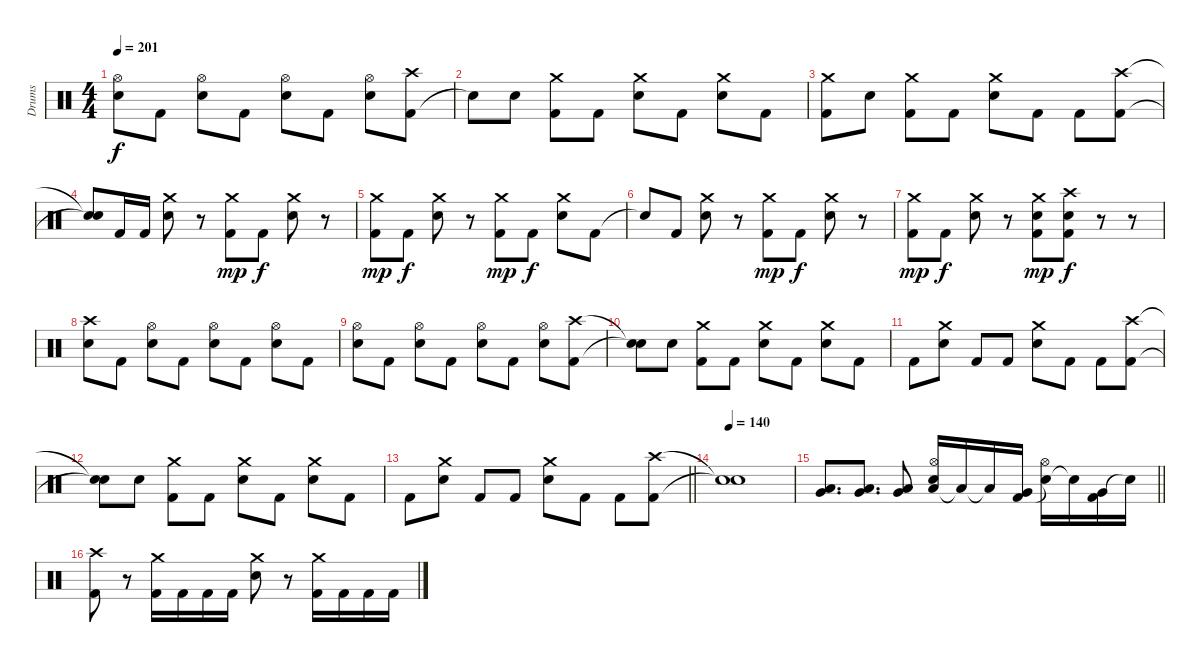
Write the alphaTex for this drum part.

\track ("Drums" "Drums") {instrument percussion}
\staff {score}
\articulation defaults
\ts (4 4)
\tempo 201
\clef neutral
\ks c
("Snare (hit) 2" "Hi-Hat (open)").8{dy f} "Kick (hit) 2".8 ("Snare (hit) 2" "Hi-Hat (open)").8 "Kick (hit) 2".8 ("Snare (hit) 2" "Hi-Hat (open)").8 "Kick (hit) 2".8 ("Snare (hit) 2" "Hi-Hat (open)").8 ("Kick (hit) 2" "Crash high (hit)").8 |
"Snare (hit)"{t}.8 "Snare (hit) 2".8 ("Kick (hit) 2" "Crash medium (hit)").8 "Kick (hit) 2".8 ("Snare (hit) 2" "Crash medium (hit)").8 "Kick (hit) 2".8 ("Snare (hit) 2" "Crash medium (hit)").8 "Kick (hit) 2".8 |
("Kick (hit) 2" "Crash medium (hit)").8 "Snare (hit) 2".8 ("Kick (hit) 2" "Crash medium (hit)").8 "Kick (hit) 2".8 ("Snare (hit) 2" "Crash medium (hit)").8 "Kick (hit) 2".8 "Kick (hit) 2".8 ("Kick (hit) 2" "Crash high (hit)").8 |
("Snare (hit)"{t} "Snare (hit)"{t}).8 "Kick (hit) 2".16 "Kick (hit) 2".16 ("Snare (hit) 2" "Crash medium (hit)").8 r.8 ("Kick (hit) 2" "Crash medium (hit)").8{dy mp} "Kick (hit) 2".8{dy f} ("Snare (hit) 2" "Crash medium (hit)").8 r.8 |
("Kick (hit) 2" "Crash medium (hit)").8{dy mp} "Kick (hit) 2".8{dy f} ("Snare (hit) 2" "Crash medium (hit)").8 r.8 ("Kick (hit) 2" "Crash medium (hit)").8{dy mp} "Kick (hit) 2".8{dy f} ("Snare (hit) 2" "Crash medium (hit)").8 "Kick (hit) 2".8 |
"Snare (hit)"{t}.8 "Kick (hit) 2".8 ("Snare (hit) 2" "Crash medium (hit)").8 r.8 ("Kick (hit) 2" "Crash medium (hit)").8{dy mp} "Kick (hit) 2".8{dy f} ("Snare (hit) 2" "Crash medium (hit)").8 r.8 |
("Kick (hit) 2" "Crash medium (hit)").8{dy mp} "Kick (hit) 2".8{dy f} ("Snare (hit) 2" "Crash medium (hit)").8 r.8 ("Kick (hit) 2" "Snare (hit) 2" "Crash medium (hit)").8{dy mp} ("Kick (hit) 2" "Snare (hit) 2" "Crash high (hit)").8{dy f} r.8 r.8 |
("Snare (hit) 2" "Crash high (hit)").8 "Kick (hit) 2".8 ("Snare (hit) 2" "Hi-Hat (open)").8 "Kick (hit) 2".8 ("Snare (hit) 2" "Hi-Hat (open)").8 "Kick (hit) 2".8 ("Snare (hit) 2" "Hi-Hat (open)").8 "Kick (hit) 2".8 |
("Snare (hit) 2" "Hi-Hat (open)").8 "Kick (hit) 2".8 ("Snare (hit) 2" "Hi-Hat (open)").8 "Kick (hit) 2".8 ("Snare (hit) 2" "Hi-Hat (open)").8 "Kick (hit) 2".8 ("Snare (hit) 2" "Hi-Hat (open)").8 ("Kick (hit) 2" "Crash high (hit)").8 |
("Snare (hit)"{t} "Snare (hit)"{t}).8 "Snare (hit) 2".8 ("Kick (hit) 2" "Crash medium (hit)").8 "Kick (hit) 2".8 ("Snare (hit) 2" "Crash medium (hit)").8 "Kick (hit) 2".8 ("Snare (hit) 2" "Crash medium (hit)").8 "Kick (hit) 2".8 |
"Kick (hit) 2".8 ("Snare (hit) 2" "Crash medium (hit)").8 "Kick (hit) 2".8 "Kick (hit) 2".8 ("Snare (hit) 2" "Crash medium (hit)").8 "Kick (hit) 2".8 "Kick (hit) 2".8 ("Kick (hit) 2" "Crash high (hit)").8 |
("Snare (hit)"{t} "Snare (hit)"{t}).8 "Snare (hit) 2".8 ("Kick (hit) 2" "Crash medium (hit)").8 "Kick (hit) 2".8 ("Snare (hit) 2" "Crash medium (hit)").8 "Kick (hit) 2".8 ("Snare (hit) 2" "Crash medium (hit)").8 "Kick (hit) 2".8 |
\barLineRight lightlight "Kick (hit) 2".8
("Snare (hit) 2" "Crash medium (hit)").8 "Kick (hit) 2".8 "Kick (hit) 2".8 ("Snare (hit) 2" "Crash medium (hit)").8 "Kick (hit) 2".8 "Kick (hit) 2".8 ("Kick (hit) 2" "Crash high (hit)").8 |
\section ("" " ")
\tempo 140
("Snare (hit)"{t} "Snare (hit)"{t}).1 |
\barLineRight lightlight
("Very Low Tom (hit)" "Low Tom (hit)").8{d} ("Very Low Tom (hit)" "Low Tom (hit)").8{d} ("Very Low Tom (hit)" "Low Tom (hit)").8 ("Low Floor Tom (hit)" "Snare (hit) 2" "Hi-Hat (open)").16 "Low Floor Tom (hit)"{t}.16 "Low Floor Tom (hit)"{t}.16 ("Kick (hit) 2" "Very Low Tom (hit)").16 ("Snare (hit)"{t} "Hi-Hat (open)").16 "Snare (hit)"{t}.16 ("Kick (hit) 2" "Very Low Tom (hit)").16 "Snare (hit)"{t}.16 |
\section ("" " ")
("Kick (hit) 2" "Crash high (hit)").8 r.8 ("Kick (hit) 2" "Crash medium (hit)").16 "Kick (hit) 2".16 "Kick (hit) 2".16 "Kick (hit) 2".16 ("Snare (hit) 2" "Crash medium (hit)").8 r.8 ("Kick (hit) 2" "Crash medium (hit)").16 "Kick (hit) 2".16 "Kick (hit) 2".16 "Kick (hit) 2".16
